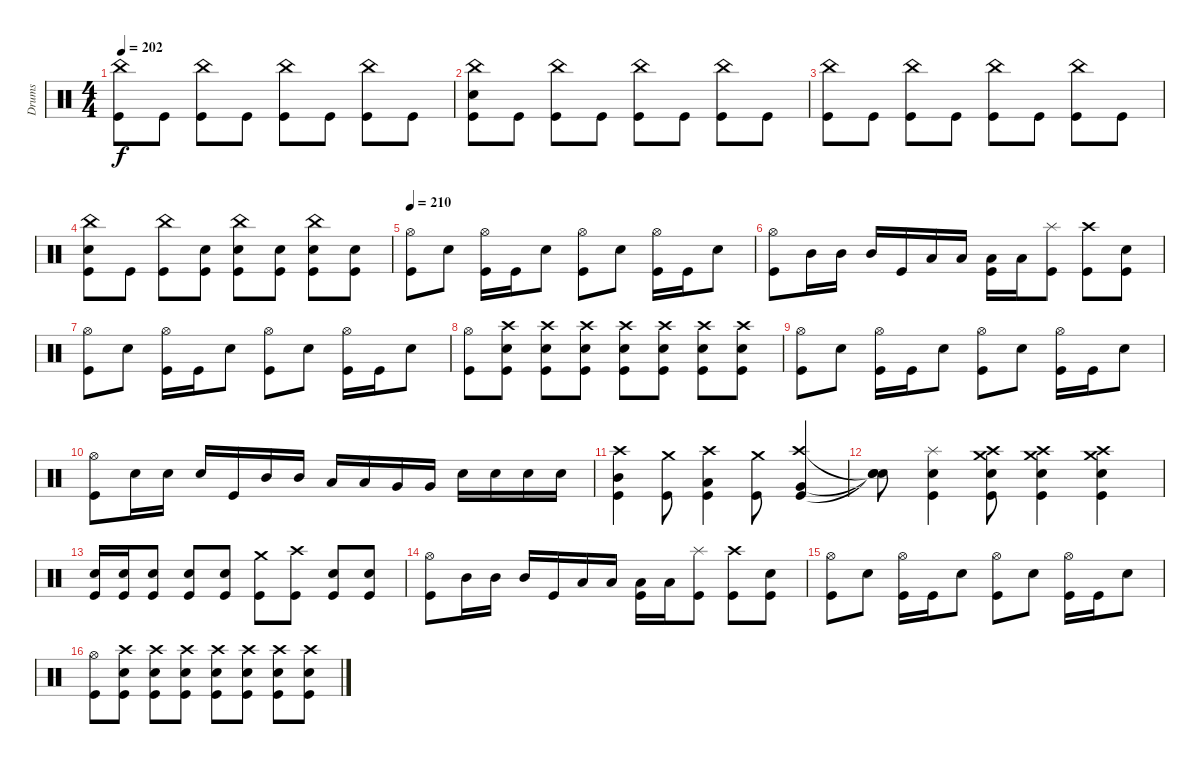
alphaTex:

\track ("Drums" "Drums") {instrument percussion}
\staff {score}
\articulation defaults
\ts (4 4)
\tempo 202
\clef neutral
\ks c
("China (hit)" "Kick (hit)").8{dy f} "Kick (hit)".8 ("China (hit)" "Kick (hit)").8 "Kick (hit)".8 ("China (hit)" "Kick (hit)").8 "Kick (hit)".8 ("China (hit)" "Kick (hit)").8 "Kick (hit)".8 |
("China (hit)" "Snare (hit) 2" "Kick (hit)").8 "Kick (hit)".8 ("China (hit)" "Kick (hit)").8 "Kick (hit)".8 ("China (hit)" "Kick (hit)").8 "Kick (hit)".8 ("China (hit)" "Kick (hit)").8 "Kick (hit)".8 |
("China (hit)" "Kick (hit)").8 "Kick (hit)".8 ("China (hit)" "Kick (hit)").8 "Kick (hit)".8 ("China (hit)" "Kick (hit)").8 "Kick (hit)".8 ("China (hit)" "Kick (hit)").8 "Kick (hit)".8 |
("China (hit)" "Snare (hit) 2" "Kick (hit)").8 "Kick (hit)".8 ("China (hit)" "Kick (hit)").8 ("Snare (hit) 2" "Kick (hit)").8 ("China (hit)" "Snare (hit) 2" "Kick (hit)").8 ("Snare (hit) 2" "Kick (hit)").8 ("China (hit)" "Snare (hit) 2" "Kick (hit)").8 ("Snare (hit) 2" "Kick (hit)").8 |
\tempo 210
("Hi-Hat (open)" "Kick (hit)").8 "Snare (hit) 2".8 ("Hi-Hat (open)" "Kick (hit)").16 "Kick (hit)".16 "Snare (hit) 2".8 ("Hi-Hat (open)" "Kick (hit)").8 "Snare (hit) 2".8 ("Hi-Hat (open)" "Kick (hit)").16 "Kick (hit)".16 "Snare (hit) 2".8 |
("Hi-Hat (open)" "Kick (hit)").8 "Mid Tom (hit)".16 "Mid Tom (hit)".16 "Mid Tom (hit)".16 "Kick (hit)".16 "Low Tom (hit)".16 "Low Tom (hit)".16 ("Low Tom (hit)" "Kick (hit)").16 "Low Tom (hit)".16 ("Splash (hit)" "Kick (hit)").8 ("Crash high (hit)" "Kick (hit)").8 ("Snare (hit) 2" "Kick (hit)").8 |
("Hi-Hat (open)" "Kick (hit)").8 "Snare (hit) 2".8 ("Hi-Hat (open)" "Kick (hit)").16 "Kick (hit)".16 "Snare (hit) 2".8 ("Hi-Hat (open)" "Kick (hit)").8 "Snare (hit) 2".8 ("Hi-Hat (open)" "Kick (hit)").16 "Kick (hit)".16 "Snare (hit) 2".8 |
("Hi-Hat (open)" "Kick (hit)").8 ("Crash high (hit)" "Snare (hit) 2" "Kick (hit)").8 ("Crash high (hit)" "Snare (hit) 2" "Kick (hit)").8 ("Crash high (hit)" "Snare (hit) 2" "Kick (hit)").8 ("Crash high (hit)" "Snare (hit) 2" "Kick (hit)").8 ("Crash high (hit)" "Snare (hit) 2" "Kick (hit)").8 ("Crash high (hit)" "Snare (hit) 2" "Kick (hit)").8 ("Crash high (hit)" "Snare (hit) 2" "Kick (hit)").8 |
("Hi-Hat (open)" "Kick (hit)").8 "Snare (hit) 2".8 ("Hi-Hat (open)" "Kick (hit)").16 "Kick (hit)".16 "Snare (hit) 2".8 ("Hi-Hat (open)" "Kick (hit)").8 "Snare (hit) 2".8 ("Hi-Hat (open)" "Kick (hit)").16 "Kick (hit)".16 "Snare (hit) 2".8 |
("Hi-Hat (open)" "Kick (hit)").8 "Snare (hit) 2".16 "Snare (hit) 2".16 "Snare (hit) 2".16 "Kick (hit)".16 "Mid Tom (hit)".16 "Mid Tom (hit)".16 "Low Tom (hit)".16 "Low Tom (hit)".16 "Very Low Tom (hit)".16 "Very Low Tom (hit)".16 "Snare (hit) 2".16 "Snare (hit) 2".16 "Snare (hit) 2".16 "Snare (hit) 2".16 |
("Crash high (hit)" "Mid Tom (hit)" "Kick (hit)").4 ("Crash medium (hit)" "Kick (hit)").8 ("Crash high (hit)" "Low Tom (hit)" "Kick (hit)").4 ("Crash medium (hit)" "Kick (hit)").8 ("Crash high (hit)" "Very Low Tom (hit)" "Kick (hit)").4 |
("Snare (hit)"{t} "Snare (hit)"{t} "Snare (hit)"{t}).8 ("Splash (hit)" "Snare (hit) 2" "Kick (hit)").4 ("Crash high (hit)" "Crash medium (hit)" "Snare (hit) 2" "Kick (hit)").8 ("Crash high (hit)" "Crash medium (hit)" "Snare (hit) 2" "Kick (hit)").4 ("Crash high (hit)" "Crash medium (hit)" "Snare (hit) 2" "Kick (hit)").4 |
("Snare (hit) 2" "Kick (hit)").16 ("Snare (hit) 2" "Kick (hit)").16 ("Snare (hit) 2" "Kick (hit)").8 ("Snare (hit) 2" "Kick (hit)").8 ("Snare (hit) 2" "Kick (hit)").8 ("Crash medium (hit)" "Kick (hit)").8 ("Crash high (hit)" "Kick (hit)").8 ("Snare (hit) 2" "Kick (hit)").8 ("Snare (hit) 2" "Kick (hit)").8 |
("Hi-Hat (open)" "Kick (hit)").8 "Mid Tom (hit)".16 "Mid Tom (hit)".16 "Mid Tom (hit)".16 "Kick (hit)".16 "Low Tom (hit)".16 "Low Tom (hit)".16 ("Low Tom (hit)" "Kick (hit)").16 "Low Tom (hit)".16 ("Splash (hit)" "Kick (hit)").8 ("Crash high (hit)" "Kick (hit)").8 ("Snare (hit) 2" "Kick (hit)").8 |
("Hi-Hat (open)" "Kick (hit)").8 "Snare (hit) 2".8 ("Hi-Hat (open)" "Kick (hit)").16 "Kick (hit)".16 "Snare (hit) 2".8 ("Hi-Hat (open)" "Kick (hit)").8 "Snare (hit) 2".8 ("Hi-Hat (open)" "Kick (hit)").16 "Kick (hit)".16 "Snare (hit) 2".8 |
("Hi-Hat (open)" "Kick (hit)").8 ("Crash high (hit)" "Snare (hit) 2" "Kick (hit)").8 ("Crash high (hit)" "Snare (hit) 2" "Kick (hit)").8 ("Crash high (hit)" "Snare (hit) 2" "Kick (hit)").8 ("Crash high (hit)" "Snare (hit) 2" "Kick (hit)").8 ("Crash high (hit)" "Snare (hit) 2" "Kick (hit)").8 ("Crash high (hit)" "Snare (hit) 2" "Kick (hit)").8 ("Crash high (hit)" "Snare (hit) 2" "Kick (hit)").8
